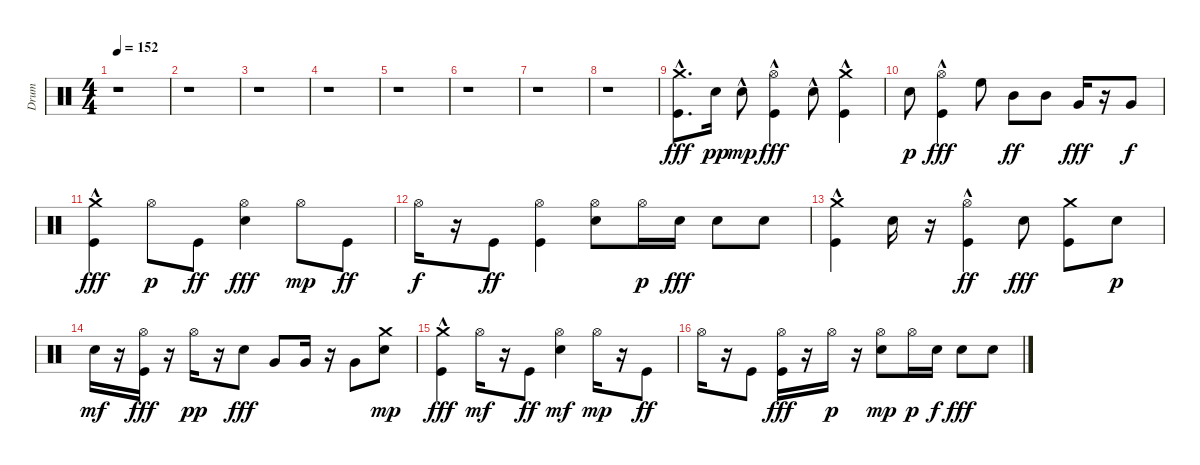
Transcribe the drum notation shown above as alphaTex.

\track ("Drum" "Drum") {instrument percussion}
\staff {score}
\articulation defaults
\ts (4 4)
\tempo 152
\clef neutral
\ks c
r.1{dy fff} |
r.1 |
r.1 |
r.1 |
r.1 |
r.1 |
r.1 |
r.1 |
("Kick (hit)"{hac} "Crash medium (hit)"{hac}).8{d} "Electric Snare (hit)".16{dy pp} "Electric Snare (hit)"{hac}.8{dy mp} ("Kick (hit)" "Hi-Hat (open)"{hac}).4{dy fff} "Electric Snare (hit)"{hac}.8 ("Kick (hit)"{hac} "Crash medium (hit)").4 |
"Electric Snare (hit)".8{dy p} ("Kick (hit)"{hac} "Hi-Hat (open)").4{dy fff} "High Floor Tom (hit)".8 "Mid Tom (hit)".8{dy ff} "Mid Tom (hit)".8 "Very Low Tom (hit)".16{dy fff} r.16 "Very Low Tom (hit)".8{dy f} |
("Kick (hit)"{hac} "Crash medium (hit)").4{dy fff} "Hi-Hat (open)".8{dy p} "Kick (hit)".8{dy ff} ("Electric Snare (hit)" "Hi-Hat (open)").4{dy fff} "Hi-Hat (open)".8{dy mp} "Kick (hit)".8{dy ff} |
"Hi-Hat (open)".16{dy f} r.16 "Kick (hit)".8{dy ff} ("Kick (hit)" "Hi-Hat (open)").4 ("Electric Snare (hit)" "Hi-Hat (open)").8 "Hi-Hat (open)".16{dy p} "Electric Snare (hit)".16{dy fff} "Electric Snare (hit)".8 "Electric Snare (hit)".8 |
("Kick (hit)"{hac} "Crash medium (hit)"{hac}).4 "Electric Snare (hit)".16 r.16 ("Kick (hit)"{hac} "Hi-Hat (open)").4{dy ff} "Electric Snare (hit)".8{dy fff} ("Kick (hit)" "Crash medium (hit)").8 "Electric Snare (hit)".8{dy p} |
"Electric Snare (hit)".16{dy mf} r.16 ("Kick (hit)" "Hi-Hat (open)").16{dy fff} r.16 "Hi-Hat (open)".16{dy pp} r.16 "Electric Snare (hit)".8{dy fff} "Very Low Tom (hit)".8 "Very Low Tom (hit)".16 r.16 "Very Low Tom (hit)".8 ("Electric Snare (hit)" "Crash medium (hit)").8{dy mp} |
("Kick (hit)"{hac} "Crash medium (hit)").4{dy fff} "Hi-Hat (open)".16{dy mf} r.16 "Kick (hit)".8{dy ff} ("Electric Snare (hit)" "Hi-Hat (open)").4{dy mf} "Hi-Hat (open)".16{dy mp} r.16 "Kick (hit)".8{dy ff} |
"Hi-Hat (open)".16 r.16 "Kick (hit)".8 ("Kick (hit)" "Hi-Hat (open)").16{dy fff} r.16 "Hi-Hat (open)".16{dy p} r.16 ("Electric Snare (hit)" "Hi-Hat (open)").8{dy mp} "Hi-Hat (open)".16{dy p} "Electric Snare (hit)".16{dy f} "Electric Snare (hit)".8{dy fff} "Electric Snare (hit)".8
